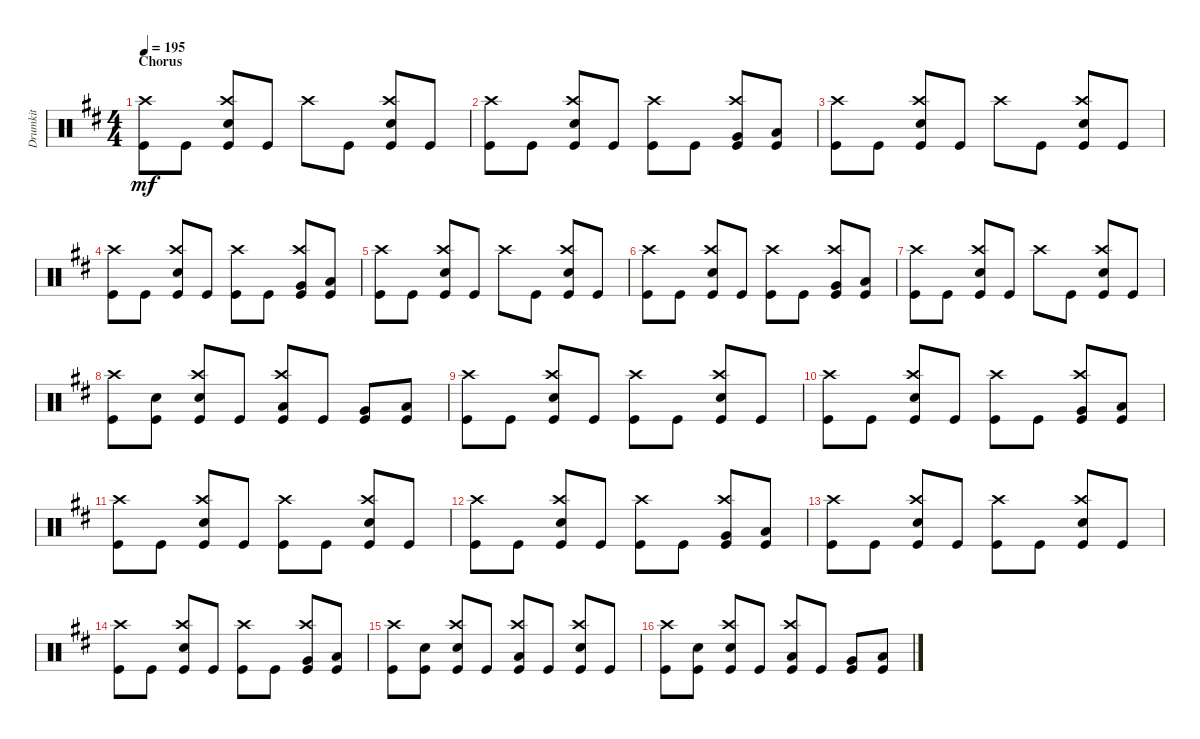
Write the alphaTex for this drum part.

\track ("Drumkit" "Drumkit") {instrument percussion}
\staff {score}
\articulation defaults
\ts (4 4)
\section ("" "Chorus")
\tempo 195
\clef neutral
\ks bminor
("Kick (hit)" "Crash high (hit)").8{dy mf} "Kick (hit)".8 ("Kick (hit)" "Snare (hit) 2" "Crash high (hit)").8 "Kick (hit)".8 "Crash high (hit)".8 "Kick (hit)".8 ("Kick (hit)" "Snare (hit) 2" "Crash high (hit)").8 "Kick (hit)".8 |
("Kick (hit)" "Crash high (hit)").8 "Kick (hit)".8 ("Kick (hit)" "Snare (hit) 2" "Crash high (hit)").8 "Kick (hit)".8 ("Kick (hit)" "Crash high (hit)").8 "Kick (hit)".8 ("Kick (hit)" "Very Low Tom (hit)" "Crash high (hit)").8 ("Kick (hit)" "Low Floor Tom (hit)").8 |
("Kick (hit)" "Crash high (hit)").8 "Kick (hit)".8 ("Kick (hit)" "Snare (hit) 2" "Crash high (hit)").8 "Kick (hit)".8 "Crash high (hit)".8 "Kick (hit)".8 ("Kick (hit)" "Snare (hit) 2" "Crash high (hit)").8 "Kick (hit)".8 |
("Kick (hit)" "Crash high (hit)").8 "Kick (hit)".8 ("Kick (hit)" "Snare (hit) 2" "Crash high (hit)").8 "Kick (hit)".8 ("Kick (hit)" "Crash high (hit)").8 "Kick (hit)".8 ("Kick (hit)" "Very Low Tom (hit)" "Crash high (hit)").8 ("Kick (hit)" "Low Floor Tom (hit)").8 |
("Kick (hit)" "Crash high (hit)").8 "Kick (hit)".8 ("Kick (hit)" "Snare (hit) 2" "Crash high (hit)").8 "Kick (hit)".8 "Crash high (hit)".8 "Kick (hit)".8 ("Kick (hit)" "Snare (hit) 2" "Crash high (hit)").8 "Kick (hit)".8 |
("Kick (hit)" "Crash high (hit)").8 "Kick (hit)".8 ("Kick (hit)" "Snare (hit) 2" "Crash high (hit)").8 "Kick (hit)".8 ("Kick (hit)" "Crash high (hit)").8 "Kick (hit)".8 ("Kick (hit)" "Very Low Tom (hit)" "Crash high (hit)").8 ("Kick (hit)" "Low Floor Tom (hit)").8 |
("Kick (hit)" "Crash high (hit)").8 "Kick (hit)".8 ("Kick (hit)" "Snare (hit) 2" "Crash high (hit)").8 "Kick (hit)".8 "Crash high (hit)".8 "Kick (hit)".8 ("Kick (hit)" "Snare (hit) 2" "Crash high (hit)").8 "Kick (hit)".8 |
("Kick (hit)" "Crash high (hit)").8 ("Kick (hit)" "Snare (hit) 2").8 ("Kick (hit)" "Snare (hit) 2" "Crash high (hit)").8 "Kick (hit)".8 ("Kick (hit)" "Crash high (hit)" "Low Tom (hit)").8 "Kick (hit)".8 ("Kick (hit)" "Very Low Tom (hit)").8 ("Kick (hit)" "Low Floor Tom (hit)").8 |
("Kick (hit)" "Crash high (hit)").8 "Kick (hit)".8 ("Kick (hit)" "Snare (hit) 2" "Crash high (hit)").8 "Kick (hit)".8 ("Crash high (hit)" "Kick (hit)").8 "Kick (hit)".8 ("Kick (hit)" "Snare (hit) 2" "Crash high (hit)").8 "Kick (hit)".8 |
("Kick (hit)" "Crash high (hit)").8 "Kick (hit)".8 ("Kick (hit)" "Snare (hit) 2" "Crash high (hit)").8 "Kick (hit)".8 ("Kick (hit)" "Crash high (hit)").8 "Kick (hit)".8 ("Kick (hit)" "Very Low Tom (hit)" "Crash high (hit)").8 ("Kick (hit)" "Low Floor Tom (hit)").8 |
("Kick (hit)" "Crash high (hit)").8 "Kick (hit)".8 ("Kick (hit)" "Snare (hit) 2" "Crash high (hit)").8 "Kick (hit)".8 ("Crash high (hit)" "Kick (hit)").8 "Kick (hit)".8 ("Kick (hit)" "Snare (hit) 2" "Crash high (hit)").8 "Kick (hit)".8 |
("Kick (hit)" "Crash high (hit)").8 "Kick (hit)".8 ("Kick (hit)" "Snare (hit) 2" "Crash high (hit)").8 "Kick (hit)".8 ("Kick (hit)" "Crash high (hit)").8 "Kick (hit)".8 ("Kick (hit)" "Very Low Tom (hit)" "Crash high (hit)").8 ("Kick (hit)" "Low Floor Tom (hit)").8 |
("Kick (hit)" "Crash high (hit)").8 "Kick (hit)".8 ("Kick (hit)" "Snare (hit) 2" "Crash high (hit)").8 "Kick (hit)".8 ("Crash high (hit)" "Kick (hit)").8 "Kick (hit)".8 ("Kick (hit)" "Snare (hit) 2" "Crash high (hit)").8 "Kick (hit)".8 |
("Kick (hit)" "Crash high (hit)").8 "Kick (hit)".8 ("Kick (hit)" "Snare (hit) 2" "Crash high (hit)").8 "Kick (hit)".8 ("Kick (hit)" "Crash high (hit)").8 "Kick (hit)".8 ("Kick (hit)" "Very Low Tom (hit)" "Crash high (hit)").8 ("Kick (hit)" "Low Floor Tom (hit)").8 |
("Kick (hit)" "Crash high (hit)").8 ("Kick (hit)" "Snare (hit) 2").8 ("Kick (hit)" "Snare (hit) 2" "Crash high (hit)").8 "Kick (hit)".8 ("Kick (hit)" "Crash high (hit)" "Low Tom (hit)").8 "Kick (hit)".8 ("Kick (hit)" "Snare (hit) 2" "Crash high (hit)").8 "Kick (hit)".8 |
("Kick (hit)" "Crash high (hit)").8 ("Kick (hit)" "Snare (hit) 2").8 ("Kick (hit)" "Snare (hit) 2" "Crash high (hit)").8 "Kick (hit)".8 ("Kick (hit)" "Crash high (hit)" "Low Tom (hit)").8 "Kick (hit)".8 ("Kick (hit)" "Very Low Tom (hit)").8 ("Kick (hit)" "Low Floor Tom (hit)").8
